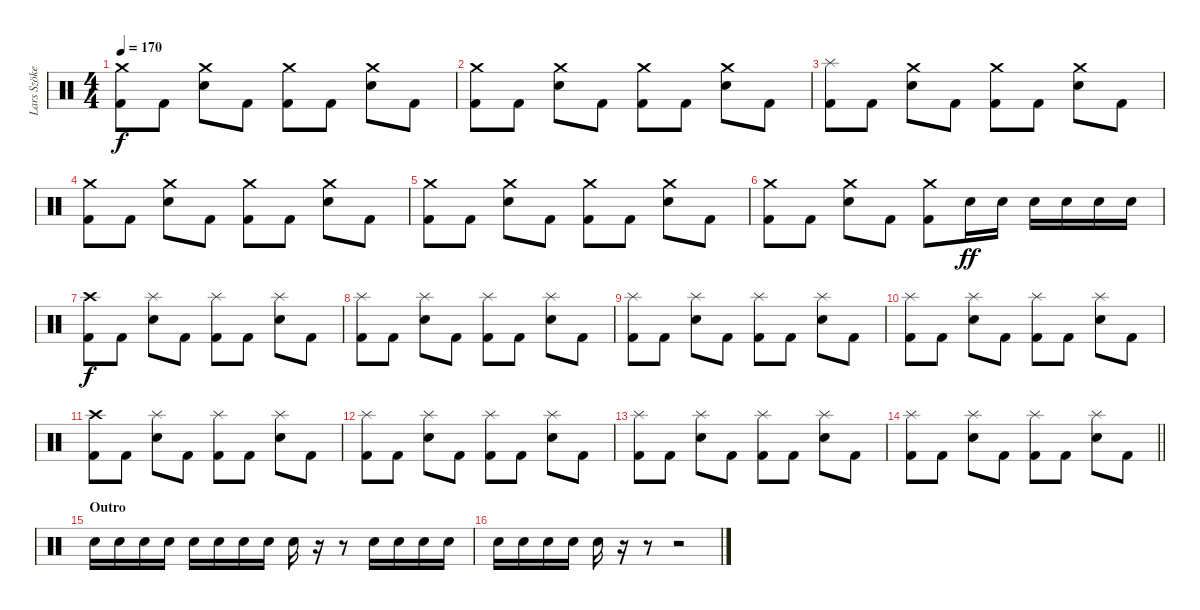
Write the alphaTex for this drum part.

\track ("Lars Szöke" "Lars Szöke") {instrument percussion}
\staff {score}
\articulation defaults
\ts (4 4)
\tempo 170
\clef neutral
\ks c
("Crash medium (hit)" "Kick (hit) 2").8{dy f} "Kick (hit) 2".8 ("Crash medium (hit)" "Snare (hit) 2").8 "Kick (hit) 2".8 ("Crash medium (hit)" "Kick (hit) 2").8 "Kick (hit) 2".8 ("Crash medium (hit)" "Snare (hit) 2").8 "Kick (hit) 2".8 |
("Crash medium (hit)" "Kick (hit) 2").8 "Kick (hit) 2".8 ("Crash medium (hit)" "Snare (hit) 2").8 "Kick (hit) 2".8 ("Crash medium (hit)" "Kick (hit) 2").8 "Kick (hit) 2".8 ("Crash medium (hit)" "Snare (hit) 2").8 "Kick (hit) 2".8 |
("Splash (hit)" "Kick (hit) 2").8 "Kick (hit) 2".8 ("Crash medium (hit)" "Snare (hit) 2").8 "Kick (hit) 2".8 ("Crash medium (hit)" "Kick (hit) 2").8 "Kick (hit) 2".8 ("Crash medium (hit)" "Snare (hit) 2").8 "Kick (hit) 2".8 |
("Crash medium (hit)" "Kick (hit) 2").8 "Kick (hit) 2".8 ("Crash medium (hit)" "Snare (hit) 2").8 "Kick (hit) 2".8 ("Crash medium (hit)" "Kick (hit) 2").8 "Kick (hit) 2".8 ("Crash medium (hit)" "Snare (hit) 2").8 "Kick (hit) 2".8 |
("Crash medium (hit)" "Kick (hit) 2").8 "Kick (hit) 2".8 ("Crash medium (hit)" "Snare (hit) 2").8 "Kick (hit) 2".8 ("Crash medium (hit)" "Kick (hit) 2").8 "Kick (hit) 2".8 ("Crash medium (hit)" "Snare (hit) 2").8 "Kick (hit) 2".8 |
("Crash medium (hit)" "Kick (hit) 2").8 "Kick (hit) 2".8 ("Crash medium (hit)" "Snare (hit) 2").8 "Kick (hit) 2".8 ("Crash medium (hit)" "Kick (hit) 2").8 "Snare (hit) 2".16{dy ff} "Snare (hit) 2".16 "Snare (hit) 2".16 "Snare (hit) 2".16 "Snare (hit) 2".16 "Snare (hit) 2".16 |
("Crash high (hit)" "Kick (hit) 2").8{dy f} "Kick (hit) 2".8 ("Splash (hit)" "Snare (hit) 2").8 "Kick (hit) 2".8 ("Splash (hit)" "Kick (hit) 2").8 "Kick (hit) 2".8 ("Splash (hit)" "Snare (hit) 2").8 "Kick (hit) 2".8 |
("Splash (hit)" "Kick (hit) 2").8 "Kick (hit) 2".8 ("Splash (hit)" "Snare (hit) 2").8 "Kick (hit) 2".8 ("Splash (hit)" "Kick (hit) 2").8 "Kick (hit) 2".8 ("Splash (hit)" "Snare (hit) 2").8 "Kick (hit) 2".8 |
("Splash (hit)" "Kick (hit) 2").8 "Kick (hit) 2".8 ("Splash (hit)" "Snare (hit) 2").8 "Kick (hit) 2".8 ("Splash (hit)" "Kick (hit) 2").8 "Kick (hit) 2".8 ("Splash (hit)" "Snare (hit) 2").8 "Kick (hit) 2".8 |
("Splash (hit)" "Kick (hit) 2").8 "Kick (hit) 2".8 ("Splash (hit)" "Snare (hit) 2").8 "Kick (hit) 2".8 ("Splash (hit)" "Kick (hit) 2").8 "Kick (hit) 2".8 ("Splash (hit)" "Snare (hit) 2").8 "Kick (hit) 2".8 |
("Crash high (hit)" "Kick (hit) 2").8 "Kick (hit) 2".8 ("Splash (hit)" "Snare (hit) 2").8 "Kick (hit) 2".8 ("Splash (hit)" "Kick (hit) 2").8 "Kick (hit) 2".8 ("Splash (hit)" "Snare (hit) 2").8 "Kick (hit) 2".8 |
("Splash (hit)" "Kick (hit) 2").8 "Kick (hit) 2".8 ("Splash (hit)" "Snare (hit) 2").8 "Kick (hit) 2".8 ("Splash (hit)" "Kick (hit) 2").8 "Kick (hit) 2".8 ("Splash (hit)" "Snare (hit) 2").8 "Kick (hit) 2".8 |
("Splash (hit)" "Kick (hit) 2").8 "Kick (hit) 2".8 ("Splash (hit)" "Snare (hit) 2").8 "Kick (hit) 2".8 ("Splash (hit)" "Kick (hit) 2").8 "Kick (hit) 2".8 ("Splash (hit)" "Snare (hit) 2").8 "Kick (hit) 2".8 |
\barLineRight lightlight
("Splash (hit)" "Kick (hit) 2").8 "Kick (hit) 2".8 ("Splash (hit)" "Snare (hit) 2").8 "Kick (hit) 2".8 ("Splash (hit)" "Kick (hit) 2").8 "Kick (hit) 2".8 ("Splash (hit)" "Snare (hit) 2").8 "Kick (hit) 2".8 |
\section ("" "Outro")
"Snare (hit) 2".16 "Snare (hit) 2".16 "Snare (hit) 2".16 "Snare (hit) 2".16 "Snare (hit) 2".16 "Snare (hit) 2".16 "Snare (hit) 2".16 "Snare (hit) 2".16 "Snare (hit) 2".16 r.16 r.8 "Snare (hit) 2".16 "Snare (hit) 2".16 "Snare (hit) 2".16 "Snare (hit) 2".16 |
"Snare (hit) 2".16 "Snare (hit) 2".16 "Snare (hit) 2".16 "Snare (hit) 2".16 "Snare (hit) 2".16 r.16 r.8 r.2
